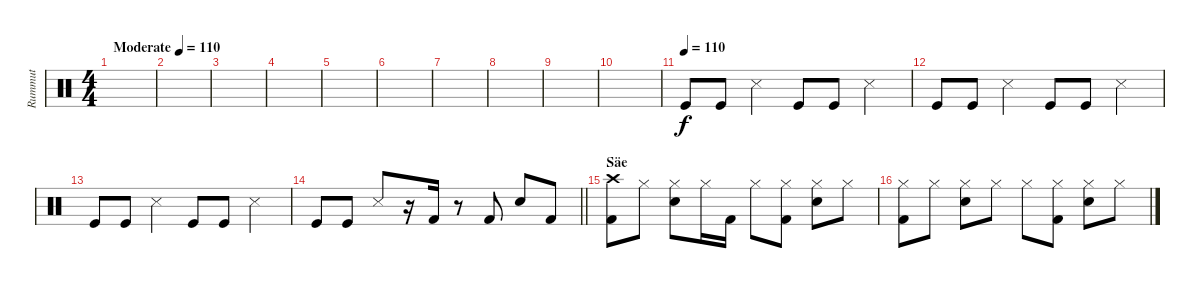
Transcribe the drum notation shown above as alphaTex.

\track ("Rummut" "Rummut") {instrument percussion}
\staff {score}
\articulation defaults
\ts (4 4)
\tempo (110 "Moderate")
\tempo 90
\tempo (110 "Moderate")
\clef neutral
\ks c
|
|
|
|
|
|
|
|
|
|
\tempo (110)
"Kick (hit)".8 "Kick (hit)".8 "Snare (side stick) 3".4 "Kick (hit)".8 "Kick (hit)".8 "Snare (side stick) 3".4 |
"Kick (hit)".8 "Kick (hit)".8 "Snare (side stick) 3".4 "Kick (hit)".8 "Kick (hit)".8 "Snare (side stick) 3".4 |
"Kick (hit)".8 "Kick (hit)".8 "Snare (side stick) 3".4 "Kick (hit)".8 "Kick (hit)".8 "Snare (side stick) 3".4 |
\barLineRight lightlight "Kick (hit)".8 "Kick (hit)".8 "Snare (side stick) 3".8
r.16 "Kick (hit) 2".16 r.8 "Kick (hit) 2".8 "Snare (hit) 2".8 "Kick (hit) 2".8 |
\section ("" "Säe")
("Crash high (hit)" "Kick (hit) 2").8 "Hi-Hat (closed)".8 ("Hi-Hat (closed)" "Snare (hit) 2").8 "Hi-Hat (closed)".16 "Kick (hit) 2".16 "Hi-Hat (closed)".8 ("Hi-Hat (closed)" "Kick (hit) 2").8 ("Hi-Hat (closed)" "Snare (hit) 2").8 "Hi-Hat (closed)".8 |
("Hi-Hat (closed)" "Kick (hit) 2").8 "Hi-Hat (closed)".8 ("Hi-Hat (closed)" "Snare (hit) 2").8 "Hi-Hat (closed)".8 "Hi-Hat (closed)".8 ("Hi-Hat (closed)" "Kick (hit) 2").8 ("Hi-Hat (closed)" "Snare (hit) 2").8 "Hi-Hat (closed)".8
